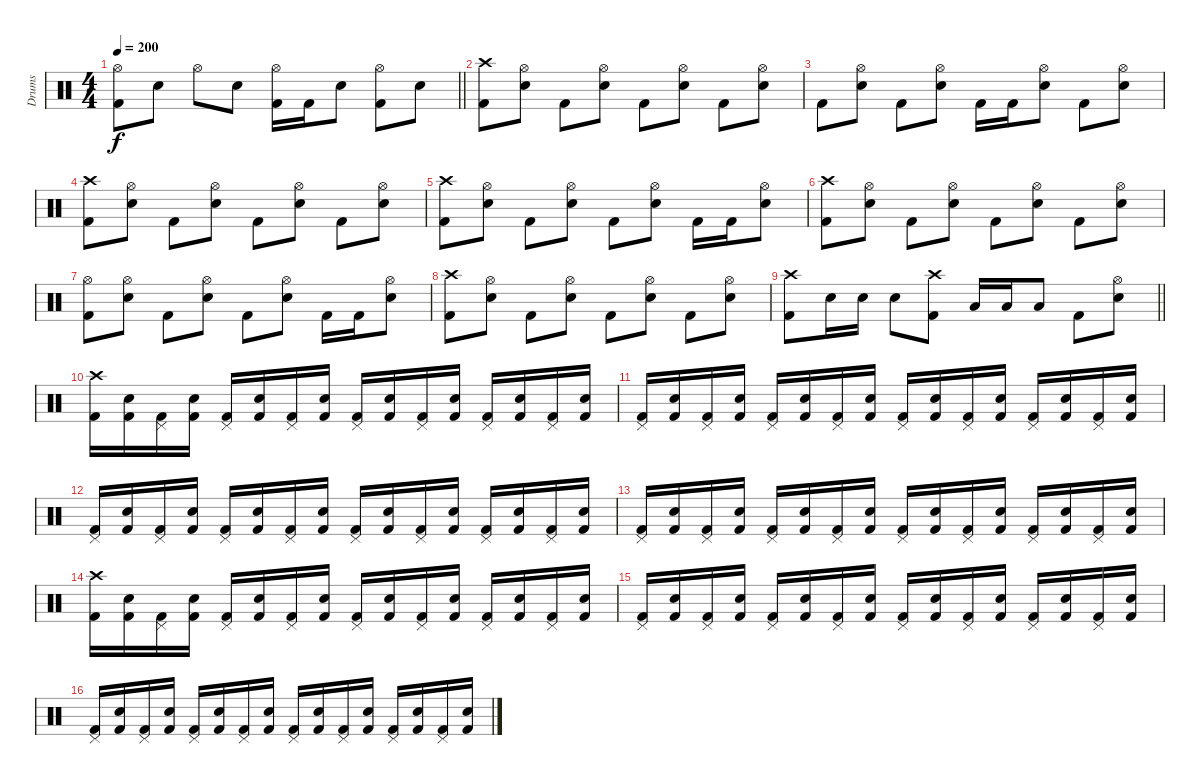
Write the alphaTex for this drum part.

\track ("Drums" "Drums") {instrument percussion}
\staff {score}
\articulation defaults
\ts (4 4)
\tempo 200
\clef neutral
\barLineRight lightlight
\ks c
("Hi-Hat (open)" "Kick (hit) 2").8{dy f} "Snare (hit) 2".8 "Hi-Hat (open)".8 "Snare (hit) 2".8 ("Hi-Hat (open)" "Kick (hit) 2").16 "Kick (hit) 2".16 "Snare (hit) 2".8 ("Hi-Hat (open)" "Kick (hit) 2").8 "Snare (hit) 2".8 |
("Crash high (hit)" "Kick (hit) 2").8 ("Hi-Hat (open)" "Snare (hit) 2").8 "Kick (hit) 2".8 ("Hi-Hat (open)" "Snare (hit) 2").8 "Kick (hit) 2".8 ("Hi-Hat (open)" "Snare (hit) 2").8 "Kick (hit) 2".8 ("Hi-Hat (open)" "Snare (hit) 2").8 |
"Kick (hit) 2".8 ("Hi-Hat (open)" "Snare (hit) 2").8 "Kick (hit) 2".8 ("Hi-Hat (open)" "Snare (hit) 2").8 "Kick (hit) 2".16 "Kick (hit) 2".16 ("Hi-Hat (open)" "Snare (hit) 2").8 "Kick (hit) 2".8 ("Hi-Hat (open)" "Snare (hit) 2").8 |
("Crash high (hit)" "Kick (hit) 2").8 ("Hi-Hat (open)" "Snare (hit) 2").8 "Kick (hit) 2".8 ("Hi-Hat (open)" "Snare (hit) 2").8 "Kick (hit) 2".8 ("Hi-Hat (open)" "Snare (hit) 2").8 "Kick (hit) 2".8 ("Hi-Hat (open)" "Snare (hit) 2").8 |
("Crash high (hit)" "Kick (hit) 2").8 ("Hi-Hat (open)" "Snare (hit) 2").8 "Kick (hit) 2".8 ("Hi-Hat (open)" "Snare (hit) 2").8 "Kick (hit) 2".8 ("Hi-Hat (open)" "Snare (hit) 2").8 "Kick (hit) 2".16 "Kick (hit) 2".16 ("Hi-Hat (open)" "Snare (hit) 2").8 |
("Crash high (hit)" "Kick (hit) 2").8 ("Hi-Hat (open)" "Snare (hit) 2").8 "Kick (hit) 2".8 ("Hi-Hat (open)" "Snare (hit) 2").8 "Kick (hit) 2".8 ("Hi-Hat (open)" "Snare (hit) 2").8 "Kick (hit) 2".8 ("Hi-Hat (open)" "Snare (hit) 2").8 |
("Hi-Hat (open)" "Kick (hit) 2").8 ("Hi-Hat (open)" "Snare (hit) 2").8 "Kick (hit) 2".8 ("Hi-Hat (open)" "Snare (hit) 2").8 "Kick (hit) 2".8 ("Hi-Hat (open)" "Snare (hit) 2").8 "Kick (hit) 2".16 "Kick (hit) 2".16 ("Hi-Hat (open)" "Snare (hit) 2").8 |
("Crash high (hit)" "Kick (hit) 2").8 ("Hi-Hat (open)" "Snare (hit) 2").8 "Kick (hit) 2".8 ("Hi-Hat (open)" "Snare (hit) 2").8 "Kick (hit) 2".8 ("Hi-Hat (open)" "Snare (hit) 2").8 "Kick (hit) 2".8 ("Hi-Hat (open)" "Snare (hit) 2").8 |
\barLineRight lightlight
("Crash high (hit)" "Kick (hit) 2").8 "Snare (hit) 2".16 "Snare (hit) 2".16 "Snare (hit) 2".8 ("Crash high (hit)" "Kick (hit) 2").8 "Low Tom (hit)".16 "Low Tom (hit)".16 "Low Tom (hit)".8 "Kick (hit) 2".8 ("Hi-Hat (open)" "Snare (hit) 2").8 |
("Crash high (hit)" "Kick (hit) 2").16 ("Snare (hit) 2" "Kick (hit) 2").16 ("Pedal Hi-Hat (hit)" "Kick (hit) 2").16 ("Snare (hit) 2" "Kick (hit) 2").16 ("Pedal Hi-Hat (hit)" "Kick (hit) 2").16 ("Snare (hit) 2" "Kick (hit) 2").16 ("Pedal Hi-Hat (hit)" "Kick (hit) 2").16 ("Snare (hit) 2" "Kick (hit) 2").16 ("Pedal Hi-Hat (hit)" "Kick (hit) 2").16 ("Snare (hit) 2" "Kick (hit) 2").16 ("Pedal Hi-Hat (hit)" "Kick (hit) 2").16 ("Snare (hit) 2" "Kick (hit) 2").16 ("Pedal Hi-Hat (hit)" "Kick (hit) 2").16 ("Snare (hit) 2" "Kick (hit) 2").16 ("Pedal Hi-Hat (hit)" "Kick (hit) 2").16 ("Snare (hit) 2" "Kick (hit) 2").16 |
("Pedal Hi-Hat (hit)" "Kick (hit) 2").16 ("Snare (hit) 2" "Kick (hit) 2").16 ("Pedal Hi-Hat (hit)" "Kick (hit) 2").16 ("Snare (hit) 2" "Kick (hit) 2").16 ("Pedal Hi-Hat (hit)" "Kick (hit) 2").16 ("Snare (hit) 2" "Kick (hit) 2").16 ("Pedal Hi-Hat (hit)" "Kick (hit) 2").16 ("Snare (hit) 2" "Kick (hit) 2").16 ("Pedal Hi-Hat (hit)" "Kick (hit) 2").16 ("Snare (hit) 2" "Kick (hit) 2").16 ("Pedal Hi-Hat (hit)" "Kick (hit) 2").16 ("Snare (hit) 2" "Kick (hit) 2").16 ("Pedal Hi-Hat (hit)" "Kick (hit) 2").16 ("Snare (hit) 2" "Kick (hit) 2").16 ("Pedal Hi-Hat (hit)" "Kick (hit) 2").16 ("Snare (hit) 2" "Kick (hit) 2").16 |
("Pedal Hi-Hat (hit)" "Kick (hit) 2").16 ("Snare (hit) 2" "Kick (hit) 2").16 ("Pedal Hi-Hat (hit)" "Kick (hit) 2").16 ("Snare (hit) 2" "Kick (hit) 2").16 ("Pedal Hi-Hat (hit)" "Kick (hit) 2").16 ("Snare (hit) 2" "Kick (hit) 2").16 ("Pedal Hi-Hat (hit)" "Kick (hit) 2").16 ("Snare (hit) 2" "Kick (hit) 2").16 ("Pedal Hi-Hat (hit)" "Kick (hit) 2").16 ("Snare (hit) 2" "Kick (hit) 2").16 ("Pedal Hi-Hat (hit)" "Kick (hit) 2").16 ("Snare (hit) 2" "Kick (hit) 2").16 ("Pedal Hi-Hat (hit)" "Kick (hit) 2").16 ("Snare (hit) 2" "Kick (hit) 2").16 ("Pedal Hi-Hat (hit)" "Kick (hit) 2").16 ("Snare (hit) 2" "Kick (hit) 2").16 |
("Pedal Hi-Hat (hit)" "Kick (hit) 2").16 ("Snare (hit) 2" "Kick (hit) 2").16 ("Pedal Hi-Hat (hit)" "Kick (hit) 2").16 ("Snare (hit) 2" "Kick (hit) 2").16 ("Pedal Hi-Hat (hit)" "Kick (hit) 2").16 ("Snare (hit) 2" "Kick (hit) 2").16 ("Pedal Hi-Hat (hit)" "Kick (hit) 2").16 ("Snare (hit) 2" "Kick (hit) 2").16 ("Pedal Hi-Hat (hit)" "Kick (hit) 2").16 ("Snare (hit) 2" "Kick (hit) 2").16 ("Pedal Hi-Hat (hit)" "Kick (hit) 2").16 ("Snare (hit) 2" "Kick (hit) 2").16 ("Pedal Hi-Hat (hit)" "Kick (hit) 2").16 ("Snare (hit) 2" "Kick (hit) 2").16 ("Pedal Hi-Hat (hit)" "Kick (hit) 2").16 ("Snare (hit) 2" "Kick (hit) 2").16 |
("Crash high (hit)" "Kick (hit) 2").16 ("Snare (hit) 2" "Kick (hit) 2").16 ("Pedal Hi-Hat (hit)" "Kick (hit) 2").16 ("Snare (hit) 2" "Kick (hit) 2").16 ("Pedal Hi-Hat (hit)" "Kick (hit) 2").16 ("Snare (hit) 2" "Kick (hit) 2").16 ("Pedal Hi-Hat (hit)" "Kick (hit) 2").16 ("Snare (hit) 2" "Kick (hit) 2").16 ("Pedal Hi-Hat (hit)" "Kick (hit) 2").16 ("Snare (hit) 2" "Kick (hit) 2").16 ("Pedal Hi-Hat (hit)" "Kick (hit) 2").16 ("Snare (hit) 2" "Kick (hit) 2").16 ("Pedal Hi-Hat (hit)" "Kick (hit) 2").16 ("Snare (hit) 2" "Kick (hit) 2").16 ("Pedal Hi-Hat (hit)" "Kick (hit) 2").16 ("Snare (hit) 2" "Kick (hit) 2").16 |
("Pedal Hi-Hat (hit)" "Kick (hit) 2").16 ("Snare (hit) 2" "Kick (hit) 2").16 ("Pedal Hi-Hat (hit)" "Kick (hit) 2").16 ("Snare (hit) 2" "Kick (hit) 2").16 ("Pedal Hi-Hat (hit)" "Kick (hit) 2").16 ("Snare (hit) 2" "Kick (hit) 2").16 ("Pedal Hi-Hat (hit)" "Kick (hit) 2").16 ("Snare (hit) 2" "Kick (hit) 2").16 ("Pedal Hi-Hat (hit)" "Kick (hit) 2").16 ("Snare (hit) 2" "Kick (hit) 2").16 ("Pedal Hi-Hat (hit)" "Kick (hit) 2").16 ("Snare (hit) 2" "Kick (hit) 2").16 ("Pedal Hi-Hat (hit)" "Kick (hit) 2").16 ("Snare (hit) 2" "Kick (hit) 2").16 ("Pedal Hi-Hat (hit)" "Kick (hit) 2").16 ("Snare (hit) 2" "Kick (hit) 2").16 |
("Pedal Hi-Hat (hit)" "Kick (hit) 2").16 ("Snare (hit) 2" "Kick (hit) 2").16 ("Pedal Hi-Hat (hit)" "Kick (hit) 2").16 ("Snare (hit) 2" "Kick (hit) 2").16 ("Pedal Hi-Hat (hit)" "Kick (hit) 2").16 ("Snare (hit) 2" "Kick (hit) 2").16 ("Pedal Hi-Hat (hit)" "Kick (hit) 2").16 ("Snare (hit) 2" "Kick (hit) 2").16 ("Pedal Hi-Hat (hit)" "Kick (hit) 2").16 ("Snare (hit) 2" "Kick (hit) 2").16 ("Pedal Hi-Hat (hit)" "Kick (hit) 2").16 ("Snare (hit) 2" "Kick (hit) 2").16 ("Pedal Hi-Hat (hit)" "Kick (hit) 2").16 ("Snare (hit) 2" "Kick (hit) 2").16 ("Pedal Hi-Hat (hit)" "Kick (hit) 2").16 ("Snare (hit) 2" "Kick (hit) 2").16
